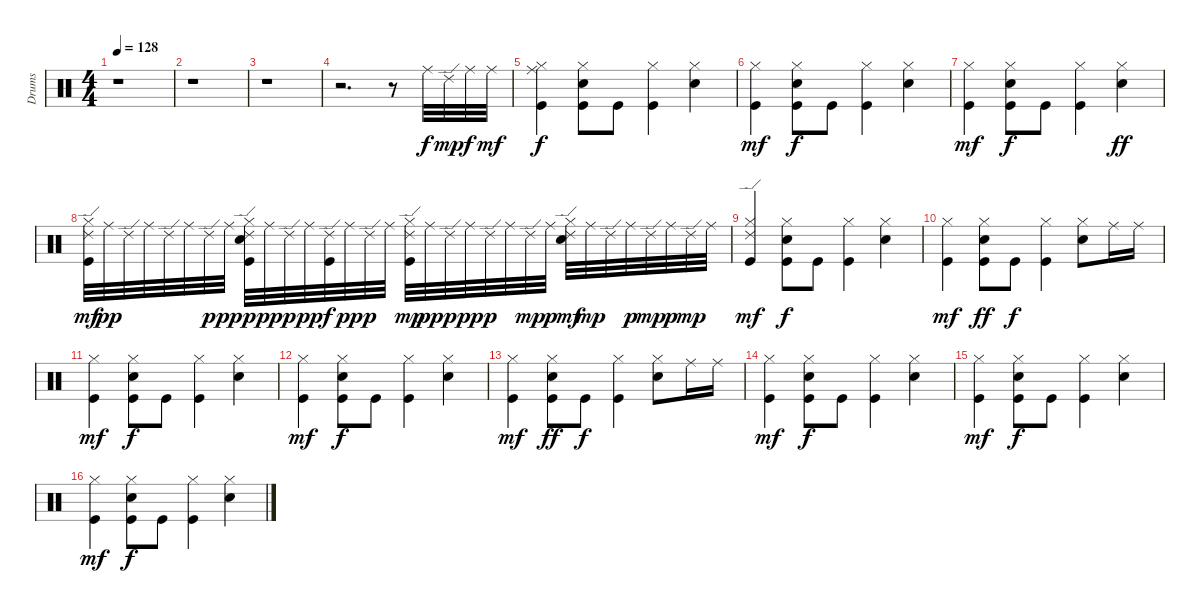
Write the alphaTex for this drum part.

\track ("Drums               " "Drums     ") {instrument percussion}
\staff {score}
\articulation defaults
\ts (4 4)
\tempo 128
\clef neutral
\ks c
r.1{dy f} |
r.1 |
r.1 |
r.2{d} r.8 "Ride (middle)".32 "Ride (edge) 2".32{dy mp} "Ride (middle)".32{dy f} "Ride (middle)".32{dy mf} |
("Ride (middle)" "Hi-Hat (closed)" "Kick (hit)").4{dy f} ("Hi-Hat (closed)" "Electric Snare (hit)" "Kick (hit)").8 "Kick (hit)".8 ("Hi-Hat (closed)" "Kick (hit)").4 ("Hi-Hat (closed)" "Electric Snare (hit)").4 |
("Hi-Hat (closed)" "Kick (hit)").4{dy mf} ("Hi-Hat (closed)" "Electric Snare (hit)" "Kick (hit)").8{dy f} "Kick (hit)".8 ("Hi-Hat (closed)" "Kick (hit)").4 ("Hi-Hat (closed)" "Electric Snare (hit)").4 |
("Hi-Hat (closed)" "Kick (hit)").4{dy mf} ("Hi-Hat (closed)" "Electric Snare (hit)" "Kick (hit)").8{dy f} "Kick (hit)".8 ("Hi-Hat (closed)" "Kick (hit)").4 ("Hi-Hat (closed)" "Electric Snare (hit)").4{dy ff} |
("Ride (edge) 2" "Hi-Hat (closed)" "Kick (hit)").32{dy mf} "Ride (middle)".32{dy pp} "Ride (edge) 2".32 "Ride (middle)".32 "Ride (edge) 2".32 "Ride (middle)".32 "Ride (edge) 2".32{dy p} "Ride (middle)".32{dy pp} ("Ride (edge) 2" "Hi-Hat (closed)" "Electric Snare (hit)" "Kick (hit)").32{dy p} "Ride (middle)".32{dy pp} "Ride (edge) 2".32{dy p} "Ride (middle)".32{dy pp} ("Ride (edge) 2" "Kick (hit)").32{dy f} "Ride (middle)".32{dy pp} "Ride (edge) 2".32{dy p} "Ride (middle)".32 ("Ride (edge) 2" "Hi-Hat (closed)" "Kick (hit)").32{dy mp} "Ride (middle)".32{dy pp} "Ride (edge) 2".32{dy p} "Ride (middle)".32{dy pp} "Ride (edge) 2".32{dy p} "Ride (middle)".32 "Ride (edge) 2".32{dy mp} "Ride (middle)".32{dy p} ("Ride (edge) 2" "Hi-Hat (closed)" "Electric Snare (hit)").32{dy mf} "Ride (middle)".32{dy mp} "Ride (edge) 2".32 "Ride (middle)".32{dy p} "Ride (edge) 2".32{dy mp} "Ride (middle)".32{dy p} "Ride (edge) 2".32{dy mp} "Ride (middle)".32 |
("Ride (edge) 2" "Hi-Hat (closed)" "Kick (hit)").4{dy mf} ("Hi-Hat (closed)" "Electric Snare (hit)" "Kick (hit)").8{dy f} "Kick (hit)".8 ("Hi-Hat (closed)" "Kick (hit)").4 ("Hi-Hat (closed)" "Electric Snare (hit)").4 |
("Hi-Hat (closed)" "Kick (hit)").4{dy mf} ("Hi-Hat (closed)" "Electric Snare (hit)" "Kick (hit)").8{dy ff} "Kick (hit)".8{dy f} ("Hi-Hat (closed)" "Kick (hit)").4 ("Hi-Hat (closed)" "Electric Snare (hit)").8 "Ride (middle)".16 "Ride (middle)".16 |
("Hi-Hat (closed)" "Kick (hit)").4{dy mf} ("Hi-Hat (closed)" "Electric Snare (hit)" "Kick (hit)").8{dy f} "Kick (hit)".8 ("Hi-Hat (closed)" "Kick (hit)").4 ("Hi-Hat (closed)" "Electric Snare (hit)").4 |
("Hi-Hat (closed)" "Kick (hit)").4{dy mf} ("Hi-Hat (closed)" "Electric Snare (hit)" "Kick (hit)").8{dy f} "Kick (hit)".8 ("Hi-Hat (closed)" "Kick (hit)").4 ("Hi-Hat (closed)" "Electric Snare (hit)").4 |
("Hi-Hat (closed)" "Kick (hit)").4{dy mf} ("Hi-Hat (closed)" "Electric Snare (hit)" "Kick (hit)").8{dy ff} "Kick (hit)".8{dy f} ("Hi-Hat (closed)" "Kick (hit)").4 ("Hi-Hat (closed)" "Electric Snare (hit)").8 "Ride (middle)".16 "Ride (middle)".16 |
("Hi-Hat (closed)" "Kick (hit)").4{dy mf} ("Hi-Hat (closed)" "Electric Snare (hit)" "Kick (hit)").8{dy f} "Kick (hit)".8 ("Hi-Hat (closed)" "Kick (hit)").4 ("Hi-Hat (closed)" "Electric Snare (hit)").4 |
("Hi-Hat (closed)" "Kick (hit)").4{dy mf} ("Hi-Hat (closed)" "Electric Snare (hit)" "Kick (hit)").8{dy f} "Kick (hit)".8 ("Hi-Hat (closed)" "Kick (hit)").4 ("Hi-Hat (closed)" "Electric Snare (hit)").4 |
("Hi-Hat (closed)" "Kick (hit)").4{dy mf} ("Hi-Hat (closed)" "Electric Snare (hit)" "Kick (hit)").8{dy f} "Kick (hit)".8 ("Hi-Hat (closed)" "Kick (hit)").4 ("Hi-Hat (closed)" "Electric Snare (hit)").4
